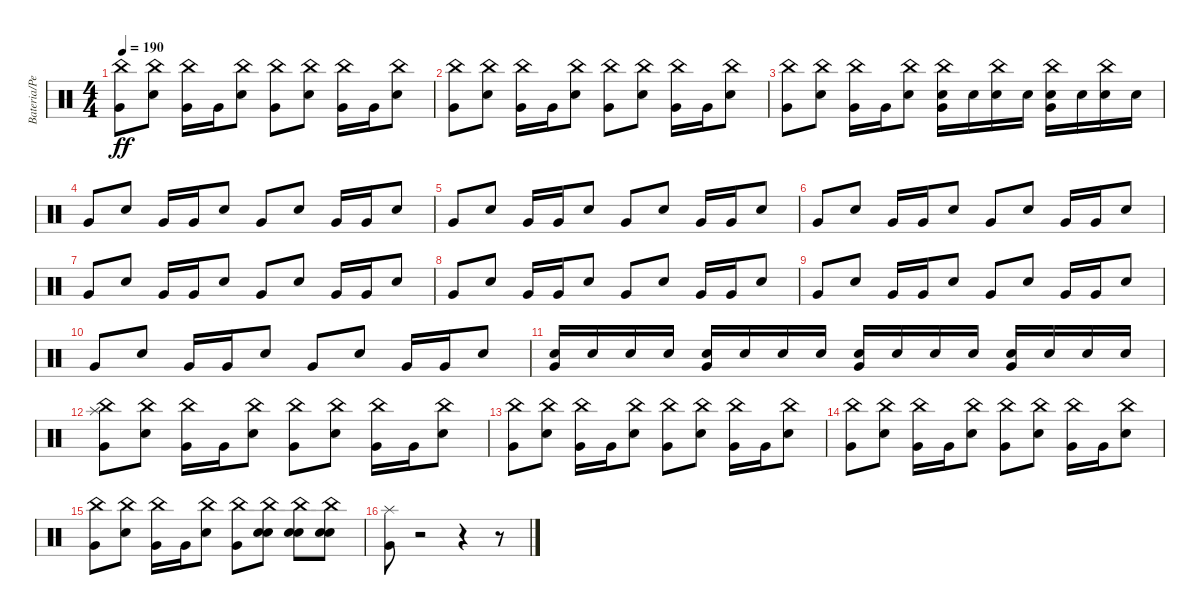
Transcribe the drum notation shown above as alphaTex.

\track ("Bateria/Percussion" "Bateria/Pe") {instrument percussion}
\staff {score}
\articulation defaults
\ts (4 4)
\tempo 190
\clef neutral
\ks c
("Very Low Tom (hit)" "China (hit)").8{dy ff} ("Electric Snare (hit)" "China (hit)").8 ("Very Low Tom (hit)" "China (hit)").16 "Very Low Tom (hit)".16 ("Electric Snare (hit)" "China (hit)").8 ("Very Low Tom (hit)" "China (hit)").8 ("Electric Snare (hit)" "China (hit)").8 ("Very Low Tom (hit)" "China (hit)").16 "Very Low Tom (hit)".16 ("Electric Snare (hit)" "China (hit)").8 |
("Very Low Tom (hit)" "China (hit)").8 ("Electric Snare (hit)" "China (hit)").8 ("Very Low Tom (hit)" "China (hit)").16 "Very Low Tom (hit)".16 ("Electric Snare (hit)" "China (hit)").8 ("Very Low Tom (hit)" "China (hit)").8 ("Electric Snare (hit)" "China (hit)").8 ("Very Low Tom (hit)" "China (hit)").16 "Very Low Tom (hit)".16 ("Electric Snare (hit)" "China (hit)").8 |
("Very Low Tom (hit)" "China (hit)").8 ("Electric Snare (hit)" "China (hit)").8 ("Very Low Tom (hit)" "China (hit)").16 "Very Low Tom (hit)".16 ("Electric Snare (hit)" "China (hit)").8 ("Snare (hit) 2" "Very Low Tom (hit)" "China (hit)").16 "Snare (hit) 2".16 ("Snare (hit) 2" "China (hit)").16 "Snare (hit) 2".16 ("Snare (hit) 2" "Very Low Tom (hit)" "China (hit)").16 "Snare (hit) 2".16 ("Snare (hit) 2" "China (hit)").16 "Snare (hit) 2".16 |
"Very Low Tom (hit)".8 "Electric Snare (hit)".8 "Very Low Tom (hit)".16 "Very Low Tom (hit)".16 "Electric Snare (hit)".8 "Very Low Tom (hit)".8 "Electric Snare (hit)".8 "Very Low Tom (hit)".16 "Very Low Tom (hit)".16 "Electric Snare (hit)".8 |
"Very Low Tom (hit)".8 "Electric Snare (hit)".8 "Very Low Tom (hit)".16 "Very Low Tom (hit)".16 "Electric Snare (hit)".8 "Very Low Tom (hit)".8 "Electric Snare (hit)".8 "Very Low Tom (hit)".16 "Very Low Tom (hit)".16 "Electric Snare (hit)".8 |
"Very Low Tom (hit)".8 "Electric Snare (hit)".8 "Very Low Tom (hit)".16 "Very Low Tom (hit)".16 "Electric Snare (hit)".8 "Very Low Tom (hit)".8 "Electric Snare (hit)".8 "Very Low Tom (hit)".16 "Very Low Tom (hit)".16 "Electric Snare (hit)".8 |
"Very Low Tom (hit)".8 "Electric Snare (hit)".8 "Very Low Tom (hit)".16 "Very Low Tom (hit)".16 "Electric Snare (hit)".8 "Very Low Tom (hit)".8 "Electric Snare (hit)".8 "Very Low Tom (hit)".16 "Very Low Tom (hit)".16 "Electric Snare (hit)".8 |
"Very Low Tom (hit)".8 "Electric Snare (hit)".8 "Very Low Tom (hit)".16 "Very Low Tom (hit)".16 "Electric Snare (hit)".8 "Very Low Tom (hit)".8 "Electric Snare (hit)".8 "Very Low Tom (hit)".16 "Very Low Tom (hit)".16 "Electric Snare (hit)".8 |
"Very Low Tom (hit)".8 "Electric Snare (hit)".8 "Very Low Tom (hit)".16 "Very Low Tom (hit)".16 "Electric Snare (hit)".8 "Very Low Tom (hit)".8 "Electric Snare (hit)".8 "Very Low Tom (hit)".16 "Very Low Tom (hit)".16 "Electric Snare (hit)".8 |
"Very Low Tom (hit)".8 "Electric Snare (hit)".8 "Very Low Tom (hit)".16 "Very Low Tom (hit)".16 "Electric Snare (hit)".8 "Very Low Tom (hit)".8 "Electric Snare (hit)".8 "Very Low Tom (hit)".16 "Very Low Tom (hit)".16 "Electric Snare (hit)".8 |
("Snare (hit) 2" "Very Low Tom (hit)").16 "Snare (hit) 2".16 "Snare (hit) 2".16 "Snare (hit) 2".16 ("Snare (hit) 2" "Very Low Tom (hit)").16 "Snare (hit) 2".16 "Snare (hit) 2".16 "Snare (hit) 2".16 ("Snare (hit) 2" "Very Low Tom (hit)").16 "Snare (hit) 2".16 "Snare (hit) 2".16 "Snare (hit) 2".16 ("Snare (hit) 2" "Very Low Tom (hit)").16 "Snare (hit) 2".16 "Snare (hit) 2".16 "Snare (hit) 2".16 |
("Very Low Tom (hit)" "Splash (hit)" "China (hit)").8 ("Electric Snare (hit)" "China (hit)").8 ("Very Low Tom (hit)" "China (hit)").16 "Very Low Tom (hit)".16 ("Electric Snare (hit)" "China (hit)").8 ("Very Low Tom (hit)" "China (hit)").8 ("Electric Snare (hit)" "China (hit)").8 ("Very Low Tom (hit)" "China (hit)").16 "Very Low Tom (hit)".16 ("Electric Snare (hit)" "China (hit)").8 |
("Very Low Tom (hit)" "China (hit)").8 ("Electric Snare (hit)" "China (hit)").8 ("Very Low Tom (hit)" "China (hit)").16 "Very Low Tom (hit)".16 ("Electric Snare (hit)" "China (hit)").8 ("Very Low Tom (hit)" "China (hit)").8 ("Electric Snare (hit)" "China (hit)").8 ("Very Low Tom (hit)" "China (hit)").16 "Very Low Tom (hit)".16 ("Electric Snare (hit)" "China (hit)").8 |
("Very Low Tom (hit)" "China (hit)").8 ("Electric Snare (hit)" "China (hit)").8 ("Very Low Tom (hit)" "China (hit)").16 "Very Low Tom (hit)".16 ("Electric Snare (hit)" "China (hit)").8 ("Very Low Tom (hit)" "China (hit)").8 ("Electric Snare (hit)" "China (hit)").8 ("Very Low Tom (hit)" "China (hit)").16 "Very Low Tom (hit)".16 ("Electric Snare (hit)" "China (hit)").8 |
("Very Low Tom (hit)" "China (hit)").8 ("Electric Snare (hit)" "China (hit)").8 ("Very Low Tom (hit)" "China (hit)").16 "Very Low Tom (hit)".16 ("Electric Snare (hit)" "China (hit)").8 ("Very Low Tom (hit)" "China (hit)").8 ("Snare (hit) 2" "Electric Snare (hit)" "China (hit)").8 ("Snare (hit) 2" "Electric Snare (hit)" "China (hit)").8 ("Snare (hit) 2" "Electric Snare (hit)" "China (hit)").8 |
("Very Low Tom (hit)" "Splash (hit)").8 r.2 r.4 r.8
